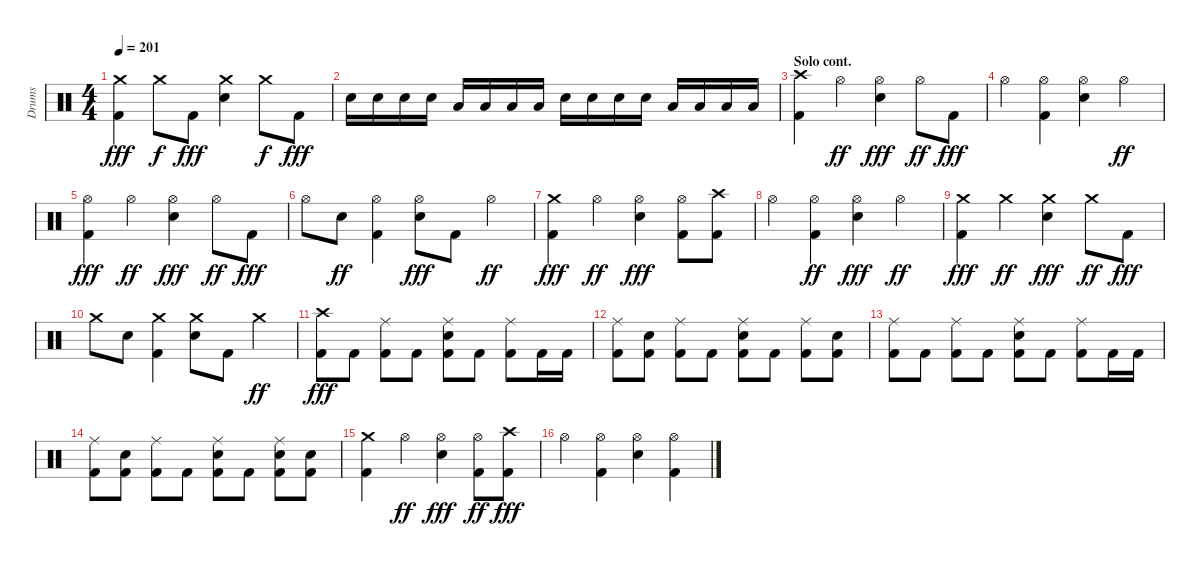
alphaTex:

\track ("Drums" "Drums") {instrument percussion}
\staff {score}
\articulation defaults
\ts (4 4)
\tempo 201
\clef neutral
\ks aminor
("Kick (hit) 2" "Crash medium (hit)").4{dy fff} "Crash medium (hit)".8{dy f} "Kick (hit) 2".8{dy fff} ("Snare (hit) 2" "Crash medium (hit)").4 "Crash medium (hit)".8{dy f} "Kick (hit) 2".8{dy fff} |
"Snare (hit) 2".16 "Snare (hit) 2".16 "Snare (hit) 2".16 "Snare (hit) 2".16 "Low Tom (hit)".16 "Low Tom (hit)".16 "Low Tom (hit)".16 "Low Tom (hit)".16 "Snare (hit) 2".16 "Snare (hit) 2".16 "Snare (hit) 2".16 "Snare (hit) 2".16 "Low Floor Tom (hit)".16 "Low Floor Tom (hit)".16 "Low Floor Tom (hit)".16 "Low Floor Tom (hit)".16 |
\section ("" "Solo cont.")
("Crash high (hit)" "Kick (hit) 2").4 "Hi-Hat (open)".4{dy ff} ("Snare (hit) 2" "Hi-Hat (open)").4{dy fff} "Hi-Hat (open)".8{dy ff} "Kick (hit) 2".8{dy fff} |
"Hi-Hat (open)".4 ("Kick (hit) 2" "Hi-Hat (open)").4 ("Snare (hit) 2" "Hi-Hat (open)").4 "Hi-Hat (open)".4{dy ff} |
("Kick (hit) 2" "Hi-Hat (open)").4{dy fff} "Hi-Hat (open)".4{dy ff} ("Snare (hit) 2" "Hi-Hat (open)").4{dy fff} "Hi-Hat (open)".8{dy ff} "Kick (hit) 2".8{dy fff} |
"Hi-Hat (open)".8 "Snare (hit) 2".8{dy ff} ("Hi-Hat (open)" "Kick (hit) 2").4 ("Hi-Hat (open)" "Snare (hit) 2").8{dy fff} "Kick (hit) 2".8 "Hi-Hat (open)".4{dy ff} |
("Kick (hit) 2" "Crash medium (hit)").4{dy fff} "Hi-Hat (open)".4{dy ff} ("Hi-Hat (open)" "Snare (hit) 2").4{dy fff} ("Hi-Hat (open)" "Kick (hit) 2").8 ("Kick (hit) 2" "Crash high (hit)").8 |
"Hi-Hat (open)".4 ("Hi-Hat (open)" "Kick (hit) 2").4{dy ff} ("Hi-Hat (open)" "Snare (hit) 2").4{dy fff} "Hi-Hat (open)".4{dy ff} |
("Kick (hit) 2" "Crash medium (hit)").4{dy fff} "Crash medium (hit)".4{dy ff} ("Crash medium (hit)" "Snare (hit) 2").4{dy fff} "Crash medium (hit)".8{dy ff} "Kick (hit) 2".8{dy fff} |
"Crash medium (hit)".8 "Snare (hit) 2".8 ("Kick (hit) 2" "Crash medium (hit)").4 ("Snare (hit) 2" "Crash medium (hit)").8 "Kick (hit) 2".8 "Crash medium (hit)".4{dy ff} |
("Kick (hit) 2" "Crash high (hit)").8{dy fff} "Kick (hit) 2".8 ("Kick (hit) 2" "Ride (middle)").8 "Kick (hit) 2".8 ("Snare (hit) 2" "Ride (middle)" "Kick (hit) 2").8 "Kick (hit) 2".8 ("Kick (hit) 2" "Ride (middle)").8 "Kick (hit) 2".16 "Kick (hit) 2".16 |
("Kick (hit) 2" "Ride (middle)").8 ("Kick (hit) 2" "Snare (hit) 2").8 ("Kick (hit) 2" "Ride (middle)").8 "Kick (hit) 2".8 ("Kick (hit) 2" "Snare (hit) 2" "Ride (middle)").8 "Kick (hit) 2".8 ("Kick (hit) 2" "Ride (middle)").8 ("Snare (hit) 2" "Kick (hit) 2").8 |
("Kick (hit) 2" "Ride (middle)").8 "Kick (hit) 2".8 ("Ride (middle)" "Kick (hit) 2").8 "Kick (hit) 2".8 ("Snare (hit) 2" "Ride (middle)" "Kick (hit) 2").8 "Kick (hit) 2".8 ("Ride (middle)" "Kick (hit) 2").8 "Kick (hit) 2".16 "Kick (hit) 2".16 |
("Kick (hit) 2" "Ride (middle)").8 ("Snare (hit) 2" "Kick (hit) 2").8 ("Ride (middle)" "Kick (hit) 2").8 "Kick (hit) 2".8 ("Kick (hit) 2" "Snare (hit) 2" "Ride (middle)").8 "Kick (hit) 2".8 ("Kick (hit) 2" "Ride (middle)" "Snare (hit) 2").8 ("Snare (hit) 2" "Kick (hit) 2").8 |
("Kick (hit) 2" "Crash medium (hit)").4 "Hi-Hat (open)".4{dy ff} ("Snare (hit) 2" "Hi-Hat (open)").4{dy fff} ("Kick (hit) 2" "Hi-Hat (open)").8{dy ff} ("Crash high (hit)" "Kick (hit) 2").8{dy fff} |
"Hi-Hat (open)".4 ("Kick (hit) 2" "Hi-Hat (open)").4 ("Hi-Hat (open)" "Snare (hit) 2").4 ("Hi-Hat (open)" "Kick (hit) 2").4
